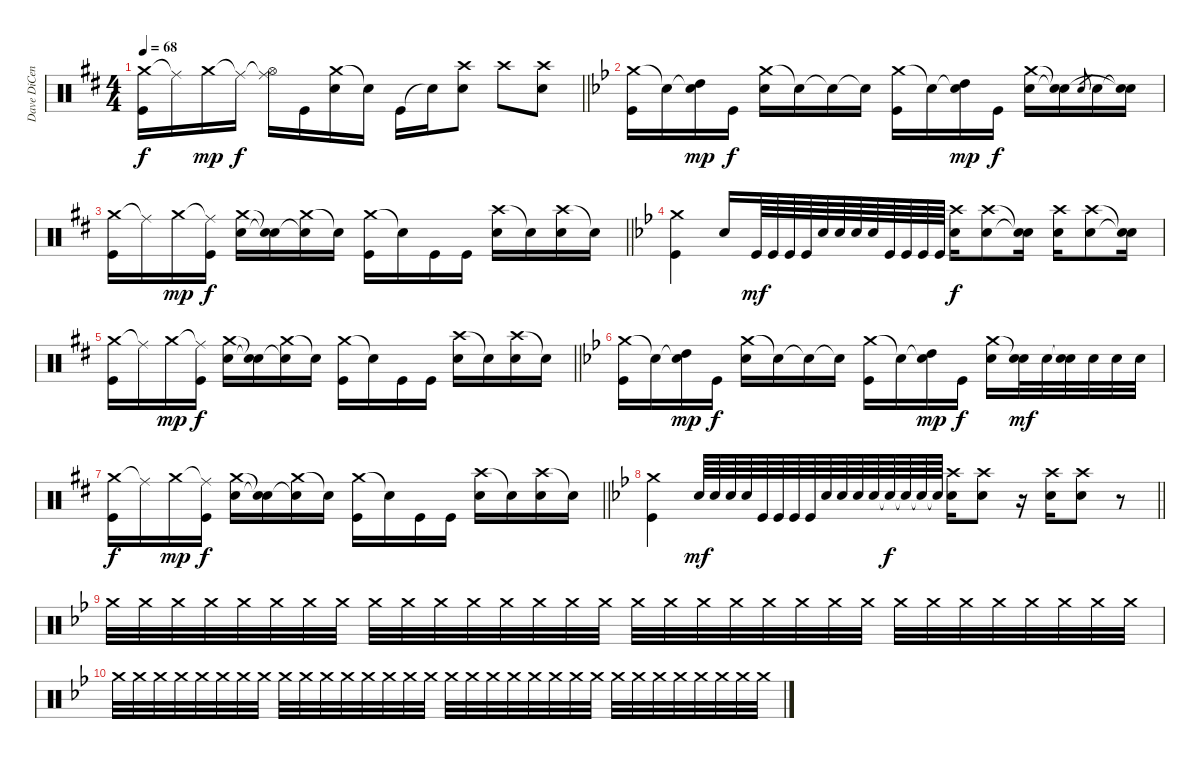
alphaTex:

\track ("Dave DiCenso" "Dave DiCen") {instrument percussion}
\staff {score}
\articulation defaults
\ts (4 4)
\tempo 68
\clef neutral
\barLineRight lightlight
\ks d
("Crash medium (hit)" "Kick (hit)").16{dy f} "Ride (middle)"{t}.16 "Crash medium (hit)".16{dy mp} "Ride (middle)"{t}.16{dy f} ("Ride (middle)"{t} "Hi-Hat (open)").16 "Kick (hit)".16 ("Crash medium (hit)" "Electric Snare (hit)").16 "Snare (hit)"{t}.16 "Kick (hit)".16 "Snare (hit)"{t}.16 ("Crash high (hit)" "Electric Snare (hit)").8 "Crash high (hit)".8 ("Crash high (hit)" "Electric Snare (hit)").8 |
\ks bb
("Crash medium (hit)" "Kick (hit)").16 "Snare (hit)"{t}.16 ("Snare (hit)"{t} "High Tom (hit)").16{dy mp} "Kick (hit)".16{dy f} ("Crash medium (hit)" "Electric Snare (hit)").16 "Snare (hit)"{t}.16 "Snare (hit)"{t}.16 "Snare (hit)"{t}.16 ("Crash medium (hit)" "Kick (hit)").16 "Snare (hit)"{t}.16 ("Snare (hit)"{t} "High Tom (hit)").16{dy mp} "Kick (hit)".16{dy f} ("Crash medium (hit)" "Electric Snare (hit)").16 ("Snare (hit)"{t} "Snare (hit)"{t}).16 "Electric Snare (hit)".8{gr} "Electric Snare (hit)".16 ("Snare (hit)"{t} "Snare (hit)"{t}).16 |
\barLineRight lightlight
\ks d
("Crash medium (hit)" "Kick (hit)").16 "Ride (middle)"{t}.16 "Crash medium (hit)".16{dy mp} ("Ride (middle)"{t} "Kick (hit)").16{dy f} ("Crash medium (hit)" "Electric Snare (hit)").16 ("Snare (hit)"{t} "Snare (hit)"{t}).16 ("Crash medium (hit)" "Electric Snare (hit)"{t}).16 "Snare (hit)"{t}.16 ("Crash medium (hit)" "Kick (hit)").16 "Snare (hit)"{t}.16 "Kick (hit)".16 "Kick (hit)".16 ("Crash high (hit)" "Electric Snare (hit)").16 "Snare (hit)"{t}.16 ("Crash high (hit)" "Electric Snare (hit)").16 "Snare (hit)"{t}.16 |
\ks bb
("Crash medium (hit)" "Kick (hit)").4 "Electric Snare (hit)".16 "Kick (hit)".64{dy mf} "Kick (hit)".64 "Kick (hit)".64 "Kick (hit)".64 "Electric Snare (hit)".64 "Electric Snare (hit)".64 "Electric Snare (hit)".64 "Electric Snare (hit)".64 "Kick (hit)".64 "Kick (hit)".64 "Kick (hit)".64 "Kick (hit)".64 ("Crash high (hit)" "Electric Snare (hit)").16{dy f} ("Crash high (hit)" "Electric Snare (hit)").8 ("Snare (hit)"{t} "Snare (hit)"{t}).16 ("Crash high (hit)" "Electric Snare (hit)").16 ("Crash high (hit)" "Electric Snare (hit)").8 ("Snare (hit)"{t} "Snare (hit)"{t}).16 |
\barLineRight lightlight
\ks d
("Crash medium (hit)" "Kick (hit)").16 "Ride (middle)"{t}.16 "Crash medium (hit)".16{dy mp} ("Ride (middle)"{t} "Kick (hit)").16{dy f} ("Crash medium (hit)" "Electric Snare (hit)").16 ("Snare (hit)"{t} "Snare (hit)"{t}).16 ("Crash medium (hit)" "Electric Snare (hit)"{t}).16 "Snare (hit)"{t}.16 ("Crash medium (hit)" "Kick (hit)").16 "Snare (hit)"{t}.16 "Kick (hit)".16 "Kick (hit)".16 ("Crash high (hit)" "Electric Snare (hit)").16 "Snare (hit)"{t}.16 ("Crash high (hit)" "Electric Snare (hit)").16 "Snare (hit)"{t}.16 |
\ks bb
("Crash medium (hit)" "Kick (hit)").16 "Snare (hit)"{t}.16 ("Snare (hit)"{t} "High Tom (hit)").16{dy mp} "Kick (hit)".16{dy f} ("Crash medium (hit)" "Electric Snare (hit)").16 "Snare (hit)"{t}.16 "Snare (hit)"{t}.16 "Snare (hit)"{t}.16 ("Crash medium (hit)" "Kick (hit)").16 "Snare (hit)"{t}.16 ("Snare (hit)"{t} "High Tom (hit)").16{dy mp} "Kick (hit)".16{dy f} ("Crash medium (hit)" "Electric Snare (hit)").16 ("Snare (hit)"{t} "Electric Snare (hit)").32{dy mf} "Electric Snare (hit)".32 ("Snare (hit)"{t} "Electric Snare (hit)").32 "Electric Snare (hit)".32 "Electric Snare (hit)".32 "Electric Snare (hit)".32 |
\barLineRight lightlight
\ks d
("Crash medium (hit)" "Kick (hit)").16{dy f} "Ride (middle)"{t}.16 "Crash medium (hit)".16{dy mp} ("Ride (middle)"{t} "Kick (hit)").16{dy f} ("Crash medium (hit)" "Electric Snare (hit)").16 ("Snare (hit)"{t} "Snare (hit)"{t}).16 ("Crash medium (hit)" "Electric Snare (hit)"{t}).16 "Snare (hit)"{t}.16 ("Crash medium (hit)" "Kick (hit)").16 "Snare (hit)"{t}.16 "Kick (hit)".16 "Kick (hit)".16 ("Crash high (hit)" "Electric Snare (hit)").16 "Snare (hit)"{t}.16 ("Crash high (hit)" "Electric Snare (hit)").16 "Snare (hit)"{t}.16 |
\barLineRight lightlight
\ks bb
("Crash medium (hit)" "Kick (hit)").4 "Electric Snare (hit)".64{dy mf} "Electric Snare (hit)".64 "Electric Snare (hit)".64 "Electric Snare (hit)".64 "Kick (hit)".64 "Kick (hit)".64 "Kick (hit)".64 "Kick (hit)".64 "Electric Snare (hit)".64 "Electric Snare (hit)".64 "Electric Snare (hit)".64 "Electric Snare (hit)".64 "Snare (hit)"{t}.64{dy f} "Snare (hit)"{t}.64 "Snare (hit)"{t}.64 "Snare (hit)"{t}.64 ("Crash high (hit)" "Electric Snare (hit)").16 ("Crash high (hit)" "Electric Snare (hit)").8 r.16 ("Crash high (hit)" "Electric Snare (hit)").16 ("Crash high (hit)" "Electric Snare (hit)").8 r.8 |
"Crash medium (hit)".32 "Crash medium (hit)".32 "Crash medium (hit)".32 "Crash medium (hit)".32 "Crash medium (hit)".32 "Crash medium (hit)".32 "Crash medium (hit)".32 "Crash medium (hit)".32 "Crash medium (hit)".32 "Crash medium (hit)".32 "Crash medium (hit)".32 "Crash medium (hit)".32 "Crash medium (hit)".32 "Crash medium (hit)".32 "Crash medium (hit)".32 "Crash medium (hit)".32 "Crash medium (hit)".32 "Crash medium (hit)".32 "Crash medium (hit)".32 "Crash medium (hit)".32 "Crash medium (hit)".32 "Crash medium (hit)".32 "Crash medium (hit)".32 "Crash medium (hit)".32 "Crash medium (hit)".32 "Crash medium (hit)".32 "Crash medium (hit)".32 "Crash medium (hit)".32 "Crash medium (hit)".32 "Crash medium (hit)".32 "Crash medium (hit)".32 "Crash medium (hit)".32 |
"Crash medium (hit)".32 "Crash medium (hit)".32 "Crash medium (hit)".32 "Crash medium (hit)".32 "Crash medium (hit)".32 "Crash medium (hit)".32 "Crash medium (hit)".32 "Crash medium (hit)".32 "Crash medium (hit)".32 "Crash medium (hit)".32 "Crash medium (hit)".32 "Crash medium (hit)".32 "Crash medium (hit)".32 "Crash medium (hit)".32 "Crash medium (hit)".32 "Crash medium (hit)".32 "Crash medium (hit)".32 "Crash medium (hit)".32 "Crash medium (hit)".32 "Crash medium (hit)".32 "Crash medium (hit)".32 "Crash medium (hit)".32 "Crash medium (hit)".32 "Crash medium (hit)".32 "Crash medium (hit)".32 "Crash medium (hit)".32 "Crash medium (hit)".32 "Crash medium (hit)".32 "Crash medium (hit)".32 "Crash medium (hit)".32 "Crash medium (hit)".32 "Crash medium (hit)".32
